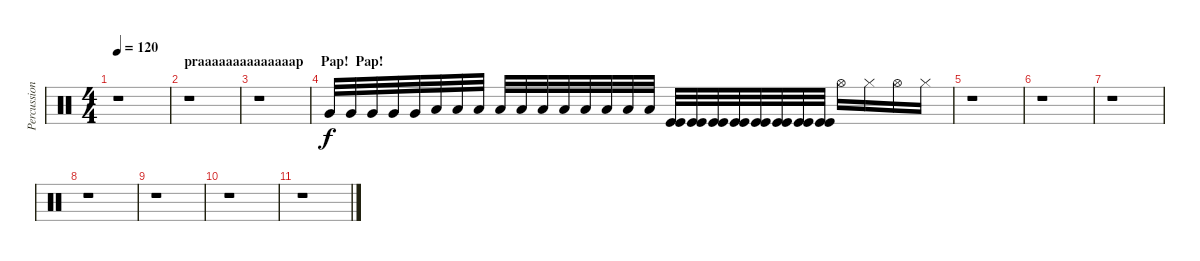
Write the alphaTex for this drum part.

\track ("Percussion" "Percussion") {instrument percussion}
\staff {score}
\articulation defaults
\ts (4 4)
\tempo 120
\clef neutral
\ks c
r.1{dy f} |
\section ("" "praaaaaaaaaaaaaap     Pap!  Pap!")
r.1 |
r.1 |
"Very Low Tom (hit)".32 "Very Low Tom (hit)".32 "Very Low Tom (hit)".32 "Very Low Tom (hit)".32 "Very Low Tom (hit)".32 "Low Floor Tom (hit)".32 "Low Floor Tom (hit)".32 "Low Floor Tom (hit)".32 "Low Floor Tom (hit)".32 "Low Floor Tom (hit)".32 "Low Floor Tom (hit)".32 "Low Floor Tom (hit)".32 "Low Floor Tom (hit)".32 "Low Floor Tom (hit)".32 "Low Floor Tom (hit)".32 "Low Floor Tom (hit)".32 ("Kick (hit)" "Kick (hit)").32 ("Kick (hit)" "Kick (hit)").32 ("Kick (hit)" "Kick (hit)").32 ("Kick (hit)" "Kick (hit)").32 ("Kick (hit)" "Kick (hit)").32 ("Kick (hit)" "Kick (hit)").32 ("Kick (hit)" "Kick (hit)").32 ("Kick (hit)" "Kick (hit)").32 "Hi-Hat (open)".16 "Hi-Hat (closed)".16 "Hi-Hat (open)".16 "Hi-Hat (closed)".16 |
r.1 |
r.1 |
r.1 |
r.1 |
r.1 |
r.1 |
r.1
